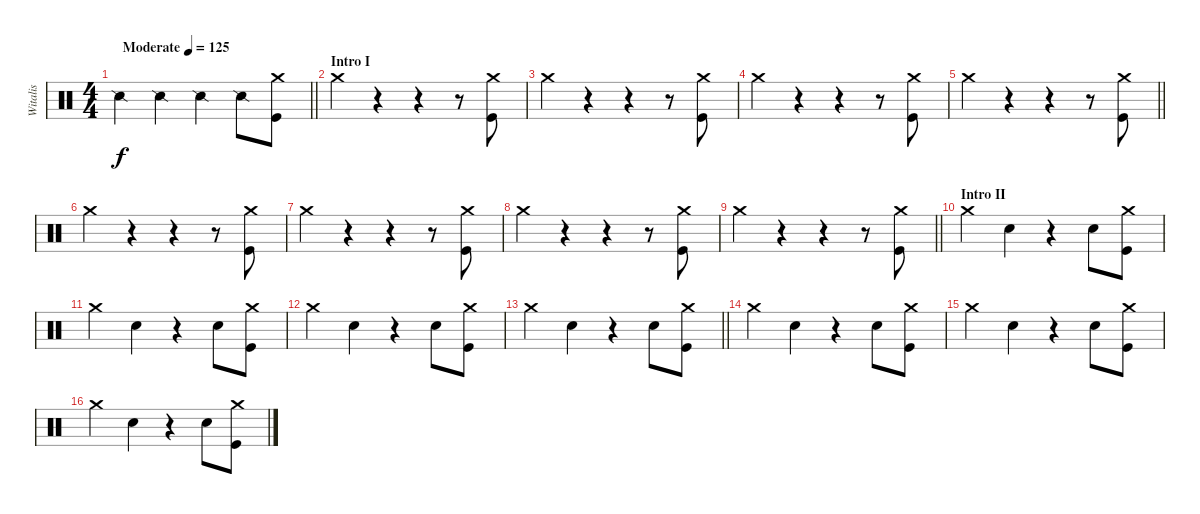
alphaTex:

\track ("Witalis" "Witalis") {instrument percussion}
\staff {score}
\articulation defaults
\ts (4 4)
\tempo (125 "Moderate")
\clef neutral
\barLineRight lightlight
\ks c "Snare (side stick) 2".4{dy f} "Snare (side stick) 2".4 "Snare (side stick) 2".4 "Snare (side stick) 2".8
("Kick (hit)" "Crash medium (hit)").8 |
\section ("" "Intro I")
"Crash medium (hit)".4 r.4 r.4 r.8 ("Kick (hit)" "Crash medium (hit)").8 |
"Crash medium (hit)".4 r.4 r.4 r.8 ("Kick (hit)" "Crash medium (hit)").8 |
"Crash medium (hit)".4 r.4 r.4 r.8 ("Kick (hit)" "Crash medium (hit)").8 |
\barLineRight lightlight "Crash medium (hit)".4
r.4 r.4 r.8 ("Kick (hit)" "Crash medium (hit)").8 |
"Crash medium (hit)".4 r.4 r.4 r.8 ("Kick (hit)" "Crash medium (hit)").8 |
"Crash medium (hit)".4 r.4 r.4 r.8 ("Kick (hit)" "Crash medium (hit)").8 |
"Crash medium (hit)".4 r.4 r.4 r.8 ("Kick (hit)" "Crash medium (hit)").8 |
\barLineRight lightlight "Crash medium (hit)".4
r.4 r.4 r.8 ("Kick (hit)" "Crash medium (hit)").8 |
\section ("" "Intro II")
"Crash medium (hit)".4 "Snare (hit) 2".4 r.4 "Snare (hit) 2".8 ("Kick (hit)" "Crash medium (hit)").8 |
"Crash medium (hit)".4 "Snare (hit) 2".4 r.4 "Snare (hit) 2".8 ("Kick (hit)" "Crash medium (hit)").8 |
"Crash medium (hit)".4 "Snare (hit) 2".4 r.4 "Snare (hit) 2".8 ("Kick (hit)" "Crash medium (hit)").8 |
\barLineRight lightlight "Crash medium (hit)".4 "Snare (hit) 2".4
r.4 "Snare (hit) 2".8 ("Kick (hit)" "Crash medium (hit)").8 |
"Crash medium (hit)".4 "Snare (hit) 2".4 r.4 "Snare (hit) 2".8 ("Kick (hit)" "Crash medium (hit)").8 |
"Crash medium (hit)".4 "Snare (hit) 2".4 r.4 "Snare (hit) 2".8 ("Kick (hit)" "Crash medium (hit)").8 |
"Crash medium (hit)".4 "Snare (hit) 2".4 r.4 "Snare (hit) 2".8 ("Kick (hit)" "Crash medium (hit)").8
